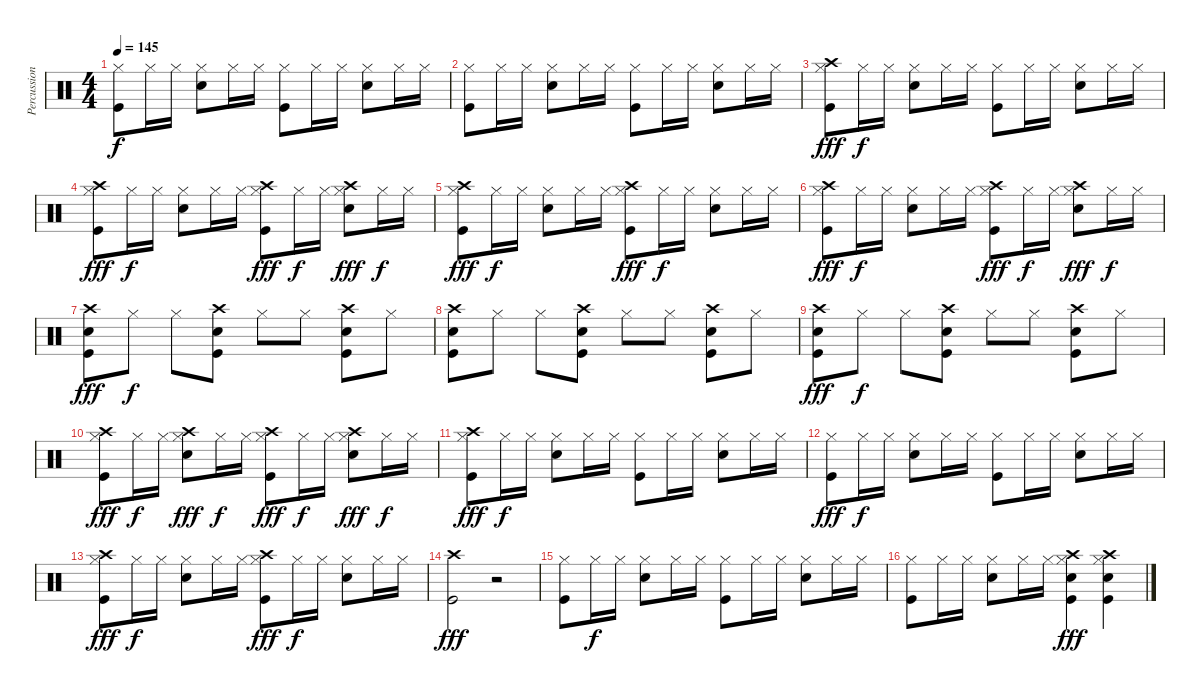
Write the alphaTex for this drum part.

\track ("Percussion" "Percussion") {instrument percussion}
\staff {score}
\articulation defaults
\ts (4 4)
\tempo 145
\clef neutral
\ks c
("Kick (hit)" "Hi-Hat (closed)").8{dy f} "Hi-Hat (closed)".16 "Hi-Hat (closed)".16 ("Snare (hit) 2" "Hi-Hat (closed)").8 "Hi-Hat (closed)".16 "Hi-Hat (closed)".16 ("Kick (hit)" "Hi-Hat (closed)").8 "Hi-Hat (closed)".16 "Hi-Hat (closed)".16 ("Snare (hit) 2" "Hi-Hat (closed)").8 "Hi-Hat (closed)".16 "Hi-Hat (closed)".16 |
("Kick (hit)" "Hi-Hat (closed)").8 "Hi-Hat (closed)".16 "Hi-Hat (closed)".16 ("Snare (hit) 2" "Hi-Hat (closed)").8 "Hi-Hat (closed)".16 "Hi-Hat (closed)".16 ("Kick (hit)" "Hi-Hat (closed)").8 "Hi-Hat (closed)".16 "Hi-Hat (closed)".16 ("Snare (hit) 2" "Hi-Hat (closed)").8 "Hi-Hat (closed)".16 "Hi-Hat (closed)".16 |
("Crash high (hit)" "Hi-Hat (closed)" "Kick (hit)").8{dy fff} "Hi-Hat (closed)".16{dy f} "Hi-Hat (closed)".16 ("Hi-Hat (closed)" "Snare (hit) 2").8 "Hi-Hat (closed)".16 "Hi-Hat (closed)".16 ("Hi-Hat (closed)" "Kick (hit)").8 "Hi-Hat (closed)".16 "Hi-Hat (closed)".16 ("Hi-Hat (closed)" "Snare (hit) 2").8 "Hi-Hat (closed)".16 "Hi-Hat (closed)".16 |
("Crash high (hit)" "Kick (hit)" "Hi-Hat (closed)").8{dy fff} "Hi-Hat (closed)".16{dy f} "Hi-Hat (closed)".16 ("Snare (hit) 2" "Hi-Hat (closed)").8 "Hi-Hat (closed)".16 "Hi-Hat (closed)".16 ("Crash high (hit)" "Kick (hit)" "Hi-Hat (closed)").8{dy fff} "Hi-Hat (closed)".16{dy f} "Hi-Hat (closed)".16 ("Crash high (hit)" "Snare (hit) 2" "Hi-Hat (closed)").8{dy fff} "Hi-Hat (closed)".16{dy f} "Hi-Hat (closed)".16 |
("Crash high (hit)" "Kick (hit)" "Hi-Hat (closed)").8{dy fff} "Hi-Hat (closed)".16{dy f} "Hi-Hat (closed)".16 ("Snare (hit) 2" "Hi-Hat (closed)").8 "Hi-Hat (closed)".16 "Hi-Hat (closed)".16 ("Crash high (hit)" "Kick (hit)" "Hi-Hat (closed)").8{dy fff} "Hi-Hat (closed)".16{dy f} "Hi-Hat (closed)".16 ("Snare (hit) 2" "Hi-Hat (closed)").8 "Hi-Hat (closed)".16 "Hi-Hat (closed)".16 |
("Hi-Hat (closed)" "Kick (hit)" "Crash high (hit)").8{dy fff} "Hi-Hat (closed)".16{dy f} "Hi-Hat (closed)".16 ("Hi-Hat (closed)" "Snare (hit) 2").8 "Hi-Hat (closed)".16 "Hi-Hat (closed)".16 ("Hi-Hat (closed)" "Kick (hit)" "Crash high (hit)").8{dy fff} "Hi-Hat (closed)".16{dy f} "Hi-Hat (closed)".16 ("Hi-Hat (closed)" "Snare (hit) 2" "Crash high (hit)").8{dy fff} "Hi-Hat (closed)".16{dy f} "Hi-Hat (closed)".16 |
("Crash high (hit)" "Kick (hit)" "Snare (hit) 2").8{dy fff} "Hi-Hat (closed)".8{dy f} "Hi-Hat (closed)".8 ("Kick (hit)" "Snare (hit) 2" "Crash high (hit)").8 "Hi-Hat (closed)".8 "Hi-Hat (closed)".8 ("Crash high (hit)" "Snare (hit) 2" "Kick (hit)").8 "Hi-Hat (closed)".8 |
("Crash high (hit)" "Snare (hit) 2" "Kick (hit)").8 "Hi-Hat (closed)".8 "Hi-Hat (closed)".8 ("Kick (hit)" "Snare (hit) 2" "Crash high (hit)").8 "Hi-Hat (closed)".8 "Hi-Hat (closed)".8 ("Kick (hit)" "Snare (hit) 2" "Crash high (hit)").8 "Hi-Hat (closed)".8 |
("Kick (hit)" "Snare (hit) 2" "Crash high (hit)").8{dy fff} "Hi-Hat (closed)".8{dy f} "Hi-Hat (closed)".8 ("Kick (hit)" "Snare (hit) 2" "Crash high (hit)").8 "Hi-Hat (closed)".8 "Hi-Hat (closed)".8 ("Kick (hit)" "Snare (hit) 2" "Crash high (hit)").8 "Hi-Hat (closed)".8 |
("Crash high (hit)" "Kick (hit)" "Hi-Hat (closed)").8{dy fff} "Hi-Hat (closed)".16{dy f} "Hi-Hat (closed)".16 ("Crash high (hit)" "Snare (hit) 2" "Hi-Hat (closed)").8{dy fff} "Hi-Hat (closed)".16{dy f} "Hi-Hat (closed)".16 ("Crash high (hit)" "Kick (hit)" "Hi-Hat (closed)").8{dy fff} "Hi-Hat (closed)".16{dy f} "Hi-Hat (closed)".16 ("Crash high (hit)" "Snare (hit) 2" "Hi-Hat (closed)").8{dy fff} "Hi-Hat (closed)".16{dy f} "Hi-Hat (closed)".16 |
("Crash high (hit)" "Kick (hit)" "Hi-Hat (closed)").8{dy fff} "Hi-Hat (closed)".16{dy f} "Hi-Hat (closed)".16 ("Snare (hit) 2" "Hi-Hat (closed)").8 "Hi-Hat (closed)".16 "Hi-Hat (closed)".16 ("Kick (hit)" "Hi-Hat (closed)").8 "Hi-Hat (closed)".16 "Hi-Hat (closed)".16 ("Snare (hit) 2" "Hi-Hat (closed)").8 "Hi-Hat (closed)".16 "Hi-Hat (closed)".16 |
("Kick (hit)" "Hi-Hat (closed)").8{dy fff} "Hi-Hat (closed)".16{dy f} "Hi-Hat (closed)".16 ("Snare (hit) 2" "Hi-Hat (closed)").8 "Hi-Hat (closed)".16 "Hi-Hat (closed)".16 ("Kick (hit)" "Hi-Hat (closed)").8 "Hi-Hat (closed)".16 "Hi-Hat (closed)".16 ("Snare (hit) 2" "Hi-Hat (closed)").8 "Hi-Hat (closed)".16 "Hi-Hat (closed)".16 |
("Crash high (hit)" "Kick (hit)" "Hi-Hat (closed)").8{dy fff} "Hi-Hat (closed)".16{dy f} "Hi-Hat (closed)".16 ("Snare (hit) 2" "Hi-Hat (closed)").8 "Hi-Hat (closed)".16 "Hi-Hat (closed)".16 ("Crash high (hit)" "Kick (hit)" "Hi-Hat (closed)").8{dy fff} "Hi-Hat (closed)".16{dy f} "Hi-Hat (closed)".16 ("Snare (hit) 2" "Hi-Hat (closed)").8 "Hi-Hat (closed)".16 "Hi-Hat (closed)".16 |
("Crash high (hit)" "Kick (hit)").2{dy fff} r.2 |
("Kick (hit)" "Hi-Hat (closed)").8 "Hi-Hat (closed)".16{dy f} "Hi-Hat (closed)".16 ("Snare (hit) 2" "Hi-Hat (closed)").8 "Hi-Hat (closed)".16 "Hi-Hat (closed)".16 ("Kick (hit)" "Hi-Hat (closed)").8 "Hi-Hat (closed)".16 "Hi-Hat (closed)".16 ("Snare (hit) 2" "Hi-Hat (closed)").8 "Hi-Hat (closed)".16 "Hi-Hat (closed)".16 |
("Kick (hit)" "Hi-Hat (closed)").8 "Hi-Hat (closed)".16 "Hi-Hat (closed)".16 ("Snare (hit) 2" "Hi-Hat (closed)").8 "Hi-Hat (closed)".16 "Hi-Hat (closed)".16 ("Hi-Hat (closed)" "Crash high (hit)" "Snare (hit) 2" "Kick (hit)").4{dy fff} ("Hi-Hat (closed)" "Crash high (hit)" "Snare (hit) 2" "Kick (hit)").4
